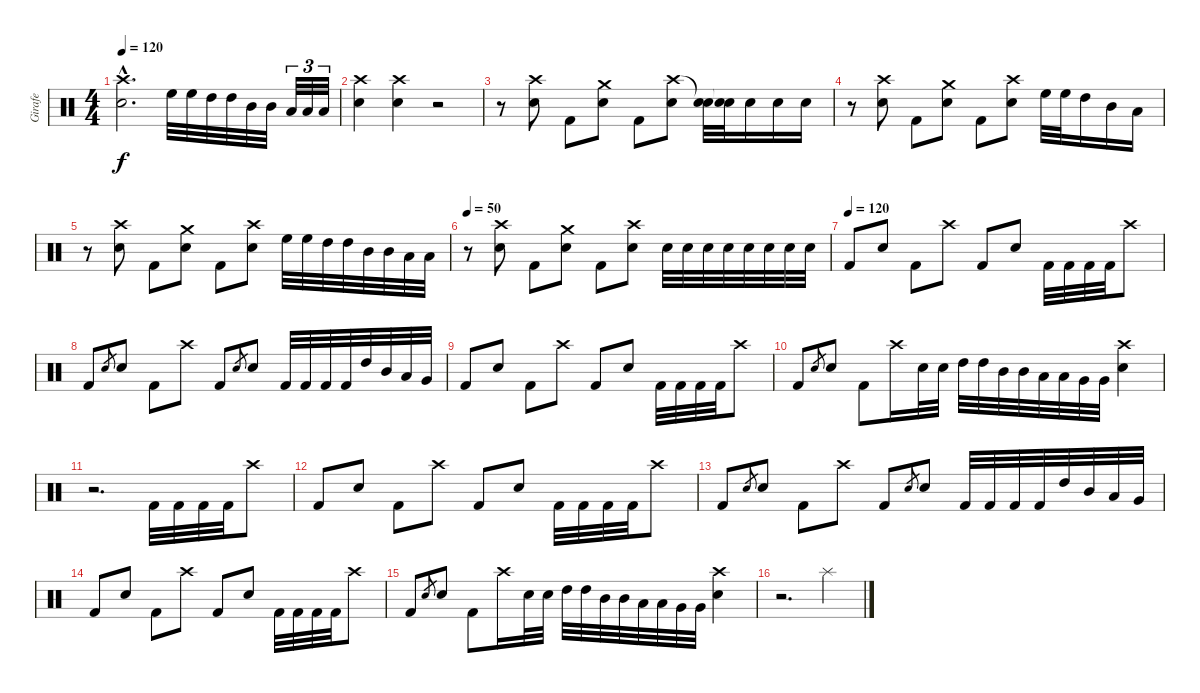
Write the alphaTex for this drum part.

\track ("Girafe" "Girafe") {instrument percussion}
\staff {score}
\articulation defaults
\ts (4 4)
\tempo 120
\clef neutral
\ks c
("Electric Snare (hit)"{hac} "Crash high (hit)"{hac}).2{d dy f} "High Floor Tom (hit)".32 "High Floor Tom (hit)".32 "High Tom (hit)".32 "High Tom (hit)".32 "Mid Tom (hit)".32 "Mid Tom (hit)".32 "Low Tom (hit)".32{tu (3 2)} "Low Tom (hit)".32{tu (3 2)} "Low Tom (hit)".32{tu (3 2)} |
("Electric Snare (hit)" "Crash high (hit)").4 ("Electric Snare (hit)" "Crash high (hit)").4 r.2 |
r.8 ("Electric Snare (hit)" "Crash high (hit)").8 "Kick (hit) 2".8 ("Electric Snare (hit)" "Crash medium (hit)").8 "Kick (hit) 2".8 ("Electric Snare (hit)" "Crash high (hit)").8 ("Electric Snare (hit)" "Snare (hit)"{t}).32 ("Electric Snare (hit)" "Snare (hit)"{t}).32 "Electric Snare (hit)".16 "Electric Snare (hit)".16 "Electric Snare (hit)".16 |
r.8 ("Electric Snare (hit)" "Crash high (hit)").8 "Kick (hit) 2".8 ("Electric Snare (hit)" "Crash medium (hit)").8 "Kick (hit) 2".8 ("Electric Snare (hit)" "Crash high (hit)").8 "High Floor Tom (hit)".32 "High Floor Tom (hit)".32 "High Tom (hit)".16 "Mid Tom (hit)".16 "Low Tom (hit)".16 |
r.8{volume 0} ("Electric Snare (hit)" "Crash high (hit)").8 "Kick (hit) 2".8 ("Electric Snare (hit)" "Crash medium (hit)").8 "Kick (hit) 2".8 ("Electric Snare (hit)" "Crash high (hit)").8 "High Floor Tom (hit)".32 "High Floor Tom (hit)".32 "High Tom (hit)".32 "High Tom (hit)".32 "Mid Tom (hit)".32 "Mid Tom (hit)".32 "Low Tom (hit)".32 "Low Tom (hit)".32 |
\tempo 50
r.8{volume 13} ("Electric Snare (hit)" "Crash high (hit)").8 "Kick (hit) 2".8 ("Electric Snare (hit)" "Crash medium (hit)").8 "Kick (hit) 2".8 ("Electric Snare (hit)" "Crash high (hit)").8 "Electric Snare (hit)".32 "Electric Snare (hit)".32 "Electric Snare (hit)".32 "Electric Snare (hit)".32 "Electric Snare (hit)".32 "Electric Snare (hit)".32 "Electric Snare (hit)".32 "Electric Snare (hit)".32 |
\tempo (120)
"Kick (hit) 2".8 "Electric Snare (hit)".8 "Kick (hit) 2".8 "Crash high (hit)".8 "Kick (hit) 2".8 "Electric Snare (hit)".8 "Kick (hit) 2".32 "Kick (hit) 2".32 "Kick (hit) 2".32 "Kick (hit) 2".32 "Crash high (hit)".8 |
"Kick (hit) 2".8 "Electric Snare (hit)".8{gr} "Electric Snare (hit)".8 "Kick (hit) 2".8 "Crash high (hit)".8 "Kick (hit) 2".8 "Electric Snare (hit)".8{gr} "Electric Snare (hit)".8 "Kick (hit) 2".32 "Kick (hit) 2".32 "Kick (hit) 2".32 "Kick (hit) 2".32 "High Tom (hit)".32 "Mid Tom (hit)".32 "Low Tom (hit)".32 "Very Low Tom (hit)".32 |
"Kick (hit) 2".8 "Electric Snare (hit)".8 "Kick (hit) 2".8 "Crash high (hit)".8 "Kick (hit) 2".8 "Electric Snare (hit)".8 "Kick (hit) 2".32 "Kick (hit) 2".32 "Kick (hit) 2".32 "Kick (hit) 2".32 "Crash high (hit)".8 |
"Kick (hit) 2".8 "Electric Snare (hit)".8{gr} "Electric Snare (hit)".8 "Kick (hit) 2".8 "Crash high (hit)".16 "Electric Snare (hit)".32 "Electric Snare (hit)".32 "High Tom (hit)".32 "High Tom (hit)".32 "Mid Tom (hit)".32 "Mid Tom (hit)".32 "Low Tom (hit)".32 "Low Tom (hit)".32 "Very Low Tom (hit)".32 "Very Low Tom (hit)".32 ("Electric Snare (hit)" "Crash high (hit)").4 |
r.2{d} "Kick (hit) 2".32 "Kick (hit) 2".32 "Kick (hit) 2".32 "Kick (hit) 2".32 "Crash high (hit)".8 |
"Kick (hit) 2".8 "Electric Snare (hit)".8 "Kick (hit) 2".8 "Crash high (hit)".8 "Kick (hit) 2".8 "Electric Snare (hit)".8 "Kick (hit) 2".32 "Kick (hit) 2".32 "Kick (hit) 2".32 "Kick (hit) 2".32 "Crash high (hit)".8 |
"Kick (hit) 2".8 "Electric Snare (hit)".8{gr} "Electric Snare (hit)".8 "Kick (hit) 2".8 "Crash high (hit)".8 "Kick (hit) 2".8 "Electric Snare (hit)".8{gr} "Electric Snare (hit)".8 "Kick (hit) 2".32 "Kick (hit) 2".32 "Kick (hit) 2".32 "Kick (hit) 2".32 "High Tom (hit)".32 "Mid Tom (hit)".32 "Low Tom (hit)".32 "Very Low Tom (hit)".32 |
"Kick (hit) 2".8 "Electric Snare (hit)".8 "Kick (hit) 2".8 "Crash high (hit)".8 "Kick (hit) 2".8 "Electric Snare (hit)".8 "Kick (hit) 2".32 "Kick (hit) 2".32 "Kick (hit) 2".32 "Kick (hit) 2".32 "Crash high (hit)".8 |
"Kick (hit) 2".8 "Electric Snare (hit)".8{gr} "Electric Snare (hit)".8 "Kick (hit) 2".8 "Crash high (hit)".16 "Electric Snare (hit)".32 "Electric Snare (hit)".32 "High Tom (hit)".32 "High Tom (hit)".32 "Mid Tom (hit)".32 "Mid Tom (hit)".32 "Low Tom (hit)".32 "Low Tom (hit)".32 "Very Low Tom (hit)".32 "Very Low Tom (hit)".32 ("Electric Snare (hit)" "Crash high (hit)").4 |
r.2{d} "Splash (hit)".4
